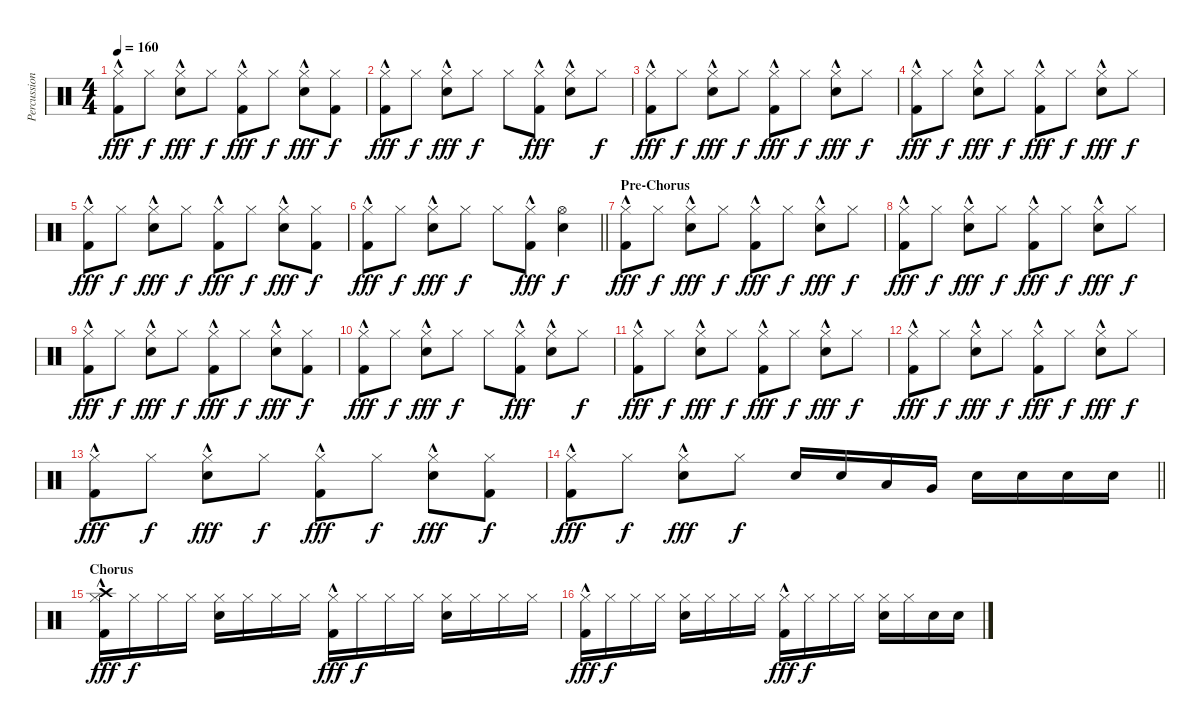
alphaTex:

\track ("Percussion" "Percussion") {instrument percussion}
\staff {score}
\articulation defaults
\ts (4 4)
\tempo 160
\clef neutral
\ks c
("Hi-Hat (closed)"{hac} "Kick (hit) 2").8{dy fff} "Hi-Hat (closed)".8{dy f} ("Hi-Hat (closed)"{hac} "Snare (hit) 2").8{dy fff} "Hi-Hat (closed)".8{dy f} ("Hi-Hat (closed)"{hac} "Kick (hit) 2").8{dy fff} "Hi-Hat (closed)".8{dy f} ("Hi-Hat (closed)"{hac} "Snare (hit) 2").8{dy fff} ("Hi-Hat (closed)" "Kick (hit) 2").8{dy f} |
("Hi-Hat (closed)"{hac} "Kick (hit) 2").8{dy fff} "Hi-Hat (closed)".8{dy f} ("Hi-Hat (closed)"{hac} "Snare (hit) 2").8{dy fff} "Hi-Hat (closed)".8{dy f} "Hi-Hat (closed)".8 ("Hi-Hat (closed)"{hac} "Kick (hit) 2").8{dy fff} ("Hi-Hat (closed)"{hac} "Snare (hit) 2").8 "Hi-Hat (closed)".8{dy f} |
("Hi-Hat (closed)"{hac} "Kick (hit) 2").8{dy fff} "Hi-Hat (closed)".8{dy f} ("Hi-Hat (closed)"{hac} "Snare (hit) 2").8{dy fff} "Hi-Hat (closed)".8{dy f} ("Hi-Hat (closed)"{hac} "Kick (hit) 2").8{dy fff} "Hi-Hat (closed)".8{dy f} ("Hi-Hat (closed)"{hac} "Snare (hit) 2").8{dy fff} "Hi-Hat (closed)".8{dy f} |
("Hi-Hat (closed)"{hac} "Kick (hit) 2").8{dy fff} "Hi-Hat (closed)".8{dy f} ("Hi-Hat (closed)"{hac} "Snare (hit) 2").8{dy fff} "Hi-Hat (closed)".8{dy f} ("Hi-Hat (closed)"{hac} "Kick (hit) 2").8{dy fff} "Hi-Hat (closed)".8{dy f} ("Hi-Hat (closed)"{hac} "Snare (hit) 2").8{dy fff} "Hi-Hat (closed)".8{dy f} |
("Hi-Hat (closed)"{hac} "Kick (hit) 2").8{dy fff} "Hi-Hat (closed)".8{dy f} ("Hi-Hat (closed)"{hac} "Snare (hit) 2").8{dy fff} "Hi-Hat (closed)".8{dy f} ("Hi-Hat (closed)"{hac} "Kick (hit) 2").8{dy fff} "Hi-Hat (closed)".8{dy f} ("Hi-Hat (closed)"{hac} "Snare (hit) 2").8{dy fff} ("Hi-Hat (closed)" "Kick (hit) 2").8{dy f} |
\barLineRight lightlight
("Hi-Hat (closed)"{hac} "Kick (hit) 2").8{dy fff} "Hi-Hat (closed)".8{dy f} ("Hi-Hat (closed)"{hac} "Snare (hit) 2").8{dy fff} "Hi-Hat (closed)".8{dy f} "Hi-Hat (closed)".8 ("Hi-Hat (closed)"{hac} "Kick (hit) 2").8{dy fff} ("Hi-Hat (open)" "Snare (hit) 2").4{dy f} |
\section ("" "Pre-Chorus")
("Hi-Hat (closed)"{hac} "Kick (hit) 2").8{dy fff} "Hi-Hat (closed)".8{dy f} ("Hi-Hat (closed)"{hac} "Snare (hit) 2").8{dy fff} "Hi-Hat (closed)".8{dy f} ("Hi-Hat (closed)"{hac} "Kick (hit) 2").8{dy fff} "Hi-Hat (closed)".8{dy f} ("Hi-Hat (closed)"{hac} "Snare (hit) 2").8{dy fff} "Hi-Hat (closed)".8{dy f} |
("Hi-Hat (closed)"{hac} "Kick (hit) 2").8{dy fff} "Hi-Hat (closed)".8{dy f} ("Hi-Hat (closed)"{hac} "Snare (hit) 2").8{dy fff} "Hi-Hat (closed)".8{dy f} ("Hi-Hat (closed)"{hac} "Kick (hit) 2").8{dy fff} "Hi-Hat (closed)".8{dy f} ("Hi-Hat (closed)"{hac} "Snare (hit) 2").8{dy fff} "Hi-Hat (closed)".8{dy f} |
("Hi-Hat (closed)"{hac} "Kick (hit) 2").8{dy fff} "Hi-Hat (closed)".8{dy f} ("Hi-Hat (closed)"{hac} "Snare (hit) 2").8{dy fff} "Hi-Hat (closed)".8{dy f} ("Hi-Hat (closed)"{hac} "Kick (hit) 2").8{dy fff} "Hi-Hat (closed)".8{dy f} ("Hi-Hat (closed)"{hac} "Snare (hit) 2").8{dy fff} ("Hi-Hat (closed)" "Kick (hit) 2").8{dy f} |
("Hi-Hat (closed)"{hac} "Kick (hit) 2").8{dy fff} "Hi-Hat (closed)".8{dy f} ("Hi-Hat (closed)"{hac} "Snare (hit) 2").8{dy fff} "Hi-Hat (closed)".8{dy f} "Hi-Hat (closed)".8 ("Hi-Hat (closed)"{hac} "Kick (hit) 2").8{dy fff} ("Hi-Hat (closed)"{hac} "Snare (hit) 2").8 "Hi-Hat (closed)".8{dy f} |
("Hi-Hat (closed)"{hac} "Kick (hit) 2").8{dy fff} "Hi-Hat (closed)".8{dy f} ("Hi-Hat (closed)"{hac} "Snare (hit) 2").8{dy fff} "Hi-Hat (closed)".8{dy f} ("Hi-Hat (closed)"{hac} "Kick (hit) 2").8{dy fff} "Hi-Hat (closed)".8{dy f} ("Hi-Hat (closed)"{hac} "Snare (hit) 2").8{dy fff} "Hi-Hat (closed)".8{dy f} |
("Hi-Hat (closed)"{hac} "Kick (hit) 2").8{dy fff} "Hi-Hat (closed)".8{dy f} ("Hi-Hat (closed)"{hac} "Snare (hit) 2").8{dy fff} "Hi-Hat (closed)".8{dy f} ("Hi-Hat (closed)"{hac} "Kick (hit) 2").8{dy fff} "Hi-Hat (closed)".8{dy f} ("Hi-Hat (closed)"{hac} "Snare (hit) 2").8{dy fff} "Hi-Hat (closed)".8{dy f} |
("Hi-Hat (closed)"{hac} "Kick (hit) 2").8{dy fff} "Hi-Hat (closed)".8{dy f} ("Hi-Hat (closed)"{hac} "Snare (hit) 2").8{dy fff} "Hi-Hat (closed)".8{dy f} ("Hi-Hat (closed)"{hac} "Kick (hit) 2").8{dy fff} "Hi-Hat (closed)".8{dy f} ("Hi-Hat (closed)"{hac} "Snare (hit) 2").8{dy fff} ("Hi-Hat (closed)" "Kick (hit) 2").8{dy f} |
\barLineRight lightlight
("Hi-Hat (closed)"{hac} "Kick (hit) 2").8{dy fff} "Hi-Hat (closed)".8{dy f} ("Hi-Hat (closed)"{hac} "Snare (hit) 2").8{dy fff} "Hi-Hat (closed)".8{dy f} "Snare (hit) 2".16 "Snare (hit) 2".16 "Low Tom (hit)".16 "Very Low Tom (hit)".16 "Snare (hit) 2".16 "Snare (hit) 2".16 "Snare (hit) 2".16 "Snare (hit) 2".16 |
\section ("" "Chorus")
("Hi-Hat (closed)"{hac} "Crash high (hit)" "Kick (hit) 2").16{dy fff} "Hi-Hat (closed)".16{dy f} "Hi-Hat (closed)".16 "Hi-Hat (closed)".16 ("Hi-Hat (closed)" "Snare (hit) 2").16 "Hi-Hat (closed)".16 "Hi-Hat (closed)".16 "Hi-Hat (closed)".16 ("Hi-Hat (closed)"{hac} "Kick (hit) 2").16{dy fff} "Hi-Hat (closed)".16{dy f} "Hi-Hat (closed)".16 "Hi-Hat (closed)".16 ("Hi-Hat (closed)" "Snare (hit) 2").16 "Hi-Hat (closed)".16 "Hi-Hat (closed)".16 "Hi-Hat (closed)".16 |
("Hi-Hat (closed)"{hac} "Kick (hit) 2").16{dy fff} "Hi-Hat (closed)".16{dy f} "Hi-Hat (closed)".16 "Hi-Hat (closed)".16 ("Hi-Hat (closed)" "Snare (hit) 2").16 "Hi-Hat (closed)".16 "Hi-Hat (closed)".16 "Hi-Hat (closed)".16 ("Hi-Hat (closed)"{hac} "Kick (hit) 2").16{dy fff} "Hi-Hat (closed)".16{dy f} "Hi-Hat (closed)".16 "Hi-Hat (closed)".16 ("Hi-Hat (closed)" "Snare (hit) 2").16 "Hi-Hat (closed)".16 "Snare (hit) 2".16 "Snare (hit) 2".16
